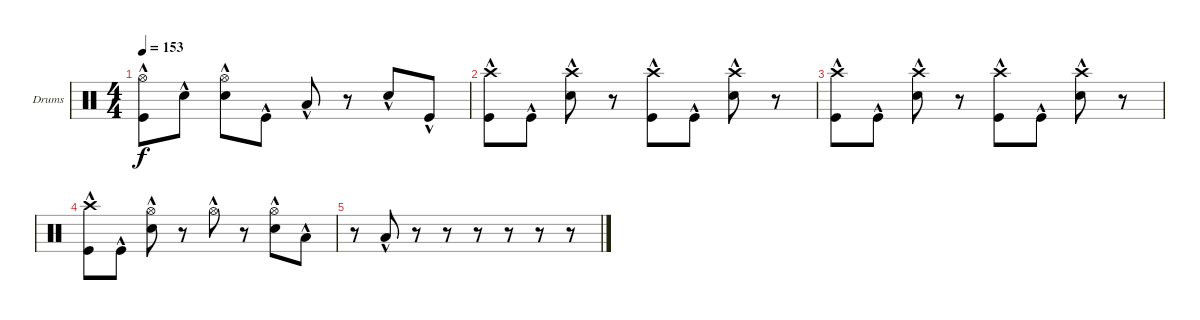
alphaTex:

\bracketExtendMode groupsimilarinstruments
\firstSystemTrackNameOrientation horizontal
\otherSystemsTrackNameOrientation horizontal
\track ("Drumkit" "Drums") {solo instrument percussion}
\staff {score}
\articulation defaults
\ts (4 4)
\tempo 153
\clef neutral
\ks c
("Hi-Hat (open)"{hac} "Kick (hit)"{hac}).8{dy f} "Snare (hit) 2"{hac}.8 ("Hi-Hat (open)"{hac} "Snare (hit) 2"{hac}).8 "Kick (hit)"{hac}.8 "Low Tom (hit)"{hac}.8 r.8 "Snare (hit) 2"{hac}.8 "Kick (hit)"{hac}.8 |
("Crash high (hit)"{hac} "Kick (hit)"{hac}).8 "Kick (hit)"{hac}.8 ("Crash high (hit)"{hac} "Snare (hit) 2"{hac}).8 r.8 ("Crash high (hit)"{hac} "Kick (hit)"{hac}).8 "Kick (hit)"{hac}.8 ("Crash high (hit)"{hac} "Snare (hit) 2"{hac}).8 r.8 |
("Crash high (hit)"{hac} "Kick (hit)"{hac}).8 "Kick (hit)"{hac}.8 ("Crash high (hit)"{hac} "Snare (hit) 2"{hac}).8 r.8 ("Crash high (hit)"{hac} "Kick (hit)"{hac}).8 "Kick (hit)"{hac}.8 ("Crash high (hit)"{hac} "Snare (hit) 2"{hac}).8 r.8 |
("Crash high (hit)"{hac} "Kick (hit)"{hac}).8 "Kick (hit)"{hac}.8 ("Hi-Hat (open)"{hac} "Snare (hit) 2"{hac}).8 r.8 "Hi-Hat (open)"{hac}.8 r.8 ("Hi-Hat (open)"{hac} "Snare (hit) 2"{hac}).8 "Low Tom (hit)"{hac}.8 |
r.8 "Low Tom (hit)"{hac}.8 r.8 r.8 r.8 r.8 r.8 r.8
